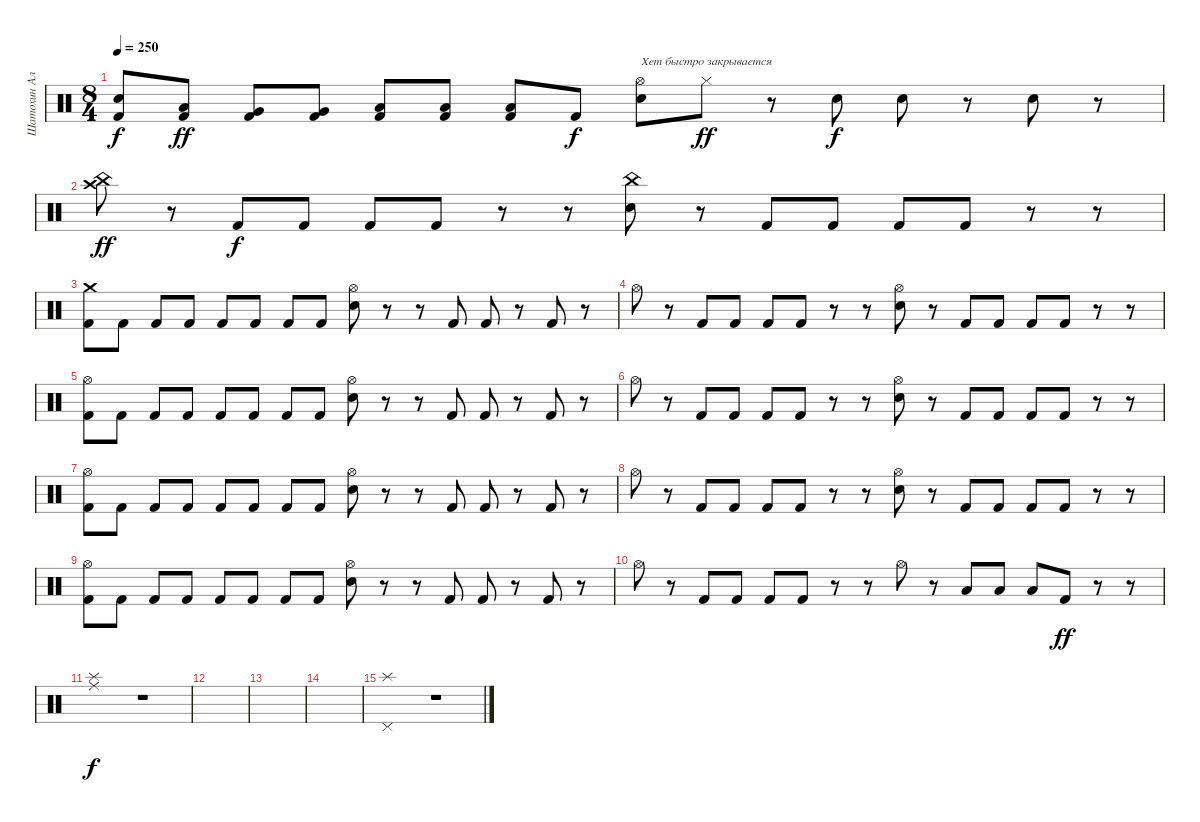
\track ("Шатохин Алексей" "Шатохин Ал") {instrument percussion}
\staff {score}
\articulation defaults
\ts (8 4)
\tempo 250
\clef neutral
\ks c
("Kick (hit) 2" "Electric Snare (hit)").8{dy f} ("Kick (hit) 2" "Low Tom (hit)").8{dy ff} ("Kick (hit) 2" "Very Low Tom (hit)").8 ("Kick (hit) 2" "Very Low Tom (hit)").8 ("Kick (hit) 2" "Low Floor Tom (hit)").8 ("Kick (hit) 2" "Low Floor Tom (hit)").8 ("Kick (hit) 2" "Low Floor Tom (hit)").8 "Kick (hit) 2".8{dy f} ("Electric Snare (hit)" "Hi-Hat (open)").8{txt "Хет быстро закрывается"} "Hi-Hat (closed)".8{dy ff} r.8 "Electric Snare (hit)".8{dy f} "Electric Snare (hit)".8 r.8 "Electric Snare (hit)".8 r.8 |
("China (hit)" "Crash high (hit)").8{dy ff} r.8 "Kick (hit) 2".8{dy f} "Kick (hit) 2".8 "Kick (hit) 2".8 "Kick (hit) 2".8 r.8 r.8 ("Electric Snare (hit)" "China (hit)").8 r.8 "Kick (hit) 2".8 "Kick (hit) 2".8 "Kick (hit) 2".8 "Kick (hit) 2".8 r.8 r.8 |
("Kick (hit) 2" "Crash medium (hit)").8 "Kick (hit) 2".8 "Kick (hit) 2".8 "Kick (hit) 2".8 "Kick (hit) 2".8 "Kick (hit) 2".8 "Kick (hit) 2".8 "Kick (hit) 2".8 ("Electric Snare (hit)" "Hi-Hat (open)").8 r.8 r.8 "Kick (hit) 2".8 "Kick (hit) 2".8 r.8 "Kick (hit) 2".8 r.8 |
"Hi-Hat (open)".8 r.8 "Kick (hit) 2".8 "Kick (hit) 2".8 "Kick (hit) 2".8 "Kick (hit) 2".8 r.8 r.8 ("Electric Snare (hit)" "Hi-Hat (open)").8 r.8 "Kick (hit) 2".8 "Kick (hit) 2".8 "Kick (hit) 2".8 "Kick (hit) 2".8 r.8 r.8 |
("Kick (hit) 2" "Hi-Hat (open)").8 "Kick (hit) 2".8 "Kick (hit) 2".8 "Kick (hit) 2".8 "Kick (hit) 2".8 "Kick (hit) 2".8 "Kick (hit) 2".8 "Kick (hit) 2".8 ("Electric Snare (hit)" "Hi-Hat (open)").8 r.8 r.8 "Kick (hit) 2".8 "Kick (hit) 2".8 r.8 "Kick (hit) 2".8 r.8 |
"Hi-Hat (open)".8 r.8 "Kick (hit) 2".8 "Kick (hit) 2".8 "Kick (hit) 2".8 "Kick (hit) 2".8 r.8 r.8 ("Electric Snare (hit)" "Hi-Hat (open)").8 r.8 "Kick (hit) 2".8 "Kick (hit) 2".8 "Kick (hit) 2".8 "Kick (hit) 2".8 r.8 r.8 |
("Kick (hit) 2" "Hi-Hat (open)").8 "Kick (hit) 2".8 "Kick (hit) 2".8 "Kick (hit) 2".8 "Kick (hit) 2".8 "Kick (hit) 2".8 "Kick (hit) 2".8 "Kick (hit) 2".8 ("Electric Snare (hit)" "Hi-Hat (open)").8 r.8 r.8 "Kick (hit) 2".8 "Kick (hit) 2".8 r.8 "Kick (hit) 2".8 r.8 |
"Hi-Hat (open)".8 r.8 "Kick (hit) 2".8 "Kick (hit) 2".8 "Kick (hit) 2".8 "Kick (hit) 2".8 r.8 r.8 ("Electric Snare (hit)" "Hi-Hat (open)").8 r.8 "Kick (hit) 2".8 "Kick (hit) 2".8 "Kick (hit) 2".8 "Kick (hit) 2".8 r.8 r.8 |
("Kick (hit) 2" "Hi-Hat (open)").8 "Kick (hit) 2".8 "Kick (hit) 2".8 "Kick (hit) 2".8 "Kick (hit) 2".8 "Kick (hit) 2".8 "Kick (hit) 2".8 "Kick (hit) 2".8 ("Electric Snare (hit)" "Hi-Hat (open)").8 r.8 r.8 "Kick (hit) 2".8 "Kick (hit) 2".8 r.8 "Kick (hit) 2".8 r.8 |
"Hi-Hat (open)".8 r.8 "Kick (hit) 2".8 "Kick (hit) 2".8 "Kick (hit) 2".8 "Kick (hit) 2".8 r.8 r.8 "Hi-Hat (open)".8 r.8 "Low Floor Tom (hit)".8 "Low Floor Tom (hit)".8 "Low Floor Tom (hit)".8 "Kick (hit) 2".8{dy ff} r.8 r.8 |
("Splash (hit)" "Ride (middle)").1{dy f} r.1 |
|
|
|
("Pedal Hi-Hat (hit)" "Splash (hit)").1 r.1
